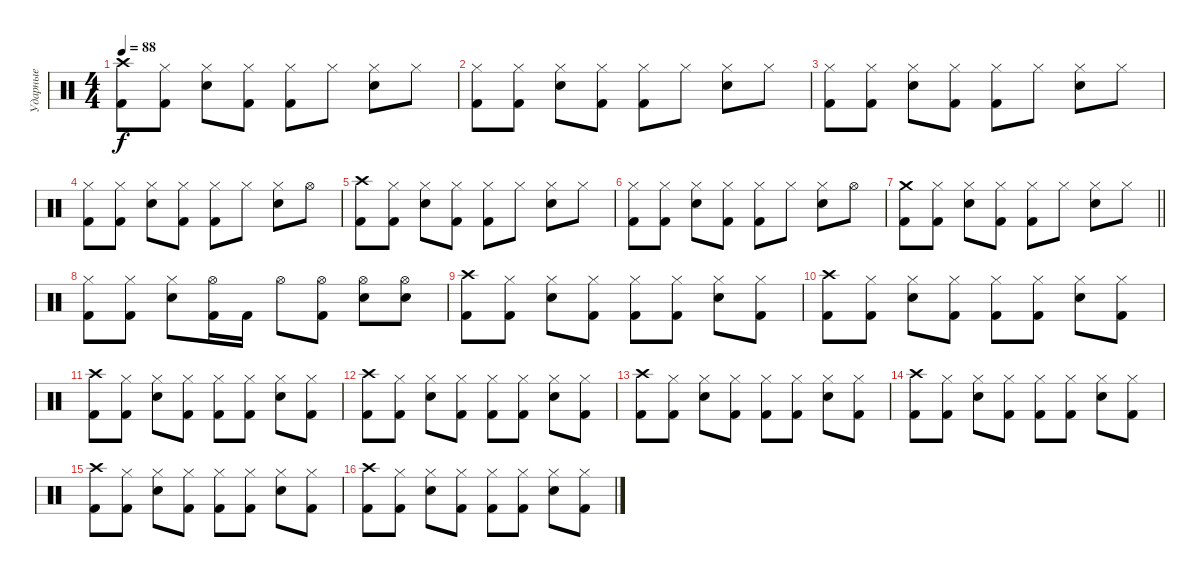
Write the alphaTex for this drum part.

\track ("Ударные" "Ударные") {instrument percussion}
\staff {score}
\articulation defaults
\ts (4 4)
\tempo 88
\clef neutral
\ks c
("Crash high (hit)" "Kick (hit) 2").8{dy f} ("Hi-Hat (closed)" "Kick (hit) 2").8 ("Hi-Hat (closed)" "Snare (hit) 2").8 ("Hi-Hat (closed)" "Kick (hit) 2").8 ("Hi-Hat (closed)" "Kick (hit) 2").8 "Hi-Hat (closed)".8 ("Hi-Hat (closed)" "Snare (hit) 2").8 "Hi-Hat (closed)".8 |
("Hi-Hat (closed)" "Kick (hit) 2").8 ("Hi-Hat (closed)" "Kick (hit) 2").8 ("Hi-Hat (closed)" "Snare (hit) 2").8 ("Hi-Hat (closed)" "Kick (hit) 2").8 ("Hi-Hat (closed)" "Kick (hit) 2").8 "Hi-Hat (closed)".8 ("Hi-Hat (closed)" "Snare (hit) 2").8 "Hi-Hat (closed)".8 |
("Hi-Hat (closed)" "Kick (hit) 2").8 ("Hi-Hat (closed)" "Kick (hit) 2").8 ("Hi-Hat (closed)" "Snare (hit) 2").8 ("Hi-Hat (closed)" "Kick (hit) 2").8 ("Hi-Hat (closed)" "Kick (hit) 2").8 "Hi-Hat (closed)".8 ("Hi-Hat (closed)" "Snare (hit) 2").8 "Hi-Hat (closed)".8 |
("Hi-Hat (closed)" "Kick (hit) 2").8 ("Hi-Hat (closed)" "Kick (hit) 2").8 ("Hi-Hat (closed)" "Snare (hit) 2").8 ("Hi-Hat (closed)" "Kick (hit) 2").8 ("Hi-Hat (closed)" "Kick (hit) 2").8 "Hi-Hat (closed)".8 ("Hi-Hat (closed)" "Snare (hit) 2").8 "Hi-Hat (open)".8 |
("Crash high (hit)" "Kick (hit) 2").8 ("Hi-Hat (closed)" "Kick (hit) 2").8 ("Hi-Hat (closed)" "Snare (hit) 2").8 ("Hi-Hat (closed)" "Kick (hit) 2").8 ("Hi-Hat (closed)" "Kick (hit) 2").8 "Hi-Hat (closed)".8 ("Hi-Hat (closed)" "Snare (hit) 2").8 "Hi-Hat (closed)".8 |
("Hi-Hat (closed)" "Kick (hit) 2").8 ("Hi-Hat (closed)" "Kick (hit) 2").8 ("Hi-Hat (closed)" "Snare (hit) 2").8 ("Hi-Hat (closed)" "Kick (hit) 2").8 ("Hi-Hat (closed)" "Kick (hit) 2").8 "Hi-Hat (closed)".8 ("Hi-Hat (closed)" "Snare (hit) 2").8 "Hi-Hat (open)".8 |
\barLineRight lightlight
("Crash medium (hit)" "Kick (hit) 2").8 ("Hi-Hat (closed)" "Kick (hit) 2").8 ("Hi-Hat (closed)" "Snare (hit) 2").8 ("Hi-Hat (closed)" "Kick (hit) 2").8 ("Hi-Hat (closed)" "Kick (hit) 2").8 "Hi-Hat (closed)".8 ("Hi-Hat (closed)" "Snare (hit) 2").8 "Hi-Hat (closed)".8 |
("Hi-Hat (closed)" "Kick (hit) 2").8 ("Hi-Hat (closed)" "Kick (hit) 2").8 ("Hi-Hat (closed)" "Snare (hit) 2").8 ("Hi-Hat (open)" "Kick (hit) 2").16 "Kick (hit) 2".16 "Hi-Hat (open)".8 ("Hi-Hat (open)" "Kick (hit) 2").8 ("Hi-Hat (open)" "Snare (hit) 2").8 ("Hi-Hat (open)" "Snare (hit) 2").8 |
("Crash high (hit)" "Kick (hit) 2").8 ("Hi-Hat (closed)" "Kick (hit) 2").8 ("Hi-Hat (closed)" "Snare (hit) 2").8 ("Hi-Hat (closed)" "Kick (hit) 2").8 ("Hi-Hat (closed)" "Kick (hit) 2").8 ("Hi-Hat (closed)" "Kick (hit) 2").8 ("Hi-Hat (closed)" "Snare (hit) 2").8 ("Hi-Hat (closed)" "Kick (hit) 2").8 |
("Crash high (hit)" "Kick (hit) 2").8 ("Hi-Hat (closed)" "Kick (hit) 2").8 ("Hi-Hat (closed)" "Snare (hit) 2").8 ("Hi-Hat (closed)" "Kick (hit) 2").8 ("Hi-Hat (closed)" "Kick (hit) 2").8 ("Hi-Hat (closed)" "Kick (hit) 2").8 ("Hi-Hat (closed)" "Snare (hit) 2").8 ("Hi-Hat (closed)" "Kick (hit) 2").8 |
("Crash high (hit)" "Kick (hit) 2").8 ("Hi-Hat (closed)" "Kick (hit) 2").8 ("Hi-Hat (closed)" "Snare (hit) 2").8 ("Hi-Hat (closed)" "Kick (hit) 2").8 ("Hi-Hat (closed)" "Kick (hit) 2").8 ("Hi-Hat (closed)" "Kick (hit) 2").8 ("Hi-Hat (closed)" "Snare (hit) 2").8 ("Hi-Hat (closed)" "Kick (hit) 2").8 |
("Crash high (hit)" "Kick (hit) 2").8 ("Hi-Hat (closed)" "Kick (hit) 2").8 ("Hi-Hat (closed)" "Snare (hit) 2").8 ("Hi-Hat (closed)" "Kick (hit) 2").8 ("Hi-Hat (closed)" "Kick (hit) 2").8 ("Hi-Hat (closed)" "Kick (hit) 2").8 ("Hi-Hat (closed)" "Snare (hit) 2").8 ("Hi-Hat (closed)" "Kick (hit) 2").8 |
("Crash high (hit)" "Kick (hit) 2").8 ("Hi-Hat (closed)" "Kick (hit) 2").8 ("Hi-Hat (closed)" "Snare (hit) 2").8 ("Hi-Hat (closed)" "Kick (hit) 2").8 ("Hi-Hat (closed)" "Kick (hit) 2").8 ("Hi-Hat (closed)" "Kick (hit) 2").8 ("Hi-Hat (closed)" "Snare (hit) 2").8 ("Hi-Hat (closed)" "Kick (hit) 2").8 |
("Crash high (hit)" "Kick (hit) 2").8 ("Hi-Hat (closed)" "Kick (hit) 2").8 ("Hi-Hat (closed)" "Snare (hit) 2").8 ("Hi-Hat (closed)" "Kick (hit) 2").8 ("Hi-Hat (closed)" "Kick (hit) 2").8 ("Hi-Hat (closed)" "Kick (hit) 2").8 ("Hi-Hat (closed)" "Snare (hit) 2").8 ("Hi-Hat (closed)" "Kick (hit) 2").8 |
("Crash high (hit)" "Kick (hit) 2").8 ("Hi-Hat (closed)" "Kick (hit) 2").8 ("Hi-Hat (closed)" "Snare (hit) 2").8 ("Hi-Hat (closed)" "Kick (hit) 2").8 ("Hi-Hat (closed)" "Kick (hit) 2").8 ("Hi-Hat (closed)" "Kick (hit) 2").8 ("Hi-Hat (closed)" "Snare (hit) 2").8 ("Hi-Hat (closed)" "Kick (hit) 2").8 |
("Crash high (hit)" "Kick (hit) 2").8 ("Hi-Hat (closed)" "Kick (hit) 2").8 ("Hi-Hat (closed)" "Snare (hit) 2").8 ("Hi-Hat (closed)" "Kick (hit) 2").8 ("Hi-Hat (closed)" "Kick (hit) 2").8 ("Hi-Hat (closed)" "Kick (hit) 2").8 ("Hi-Hat (closed)" "Snare (hit) 2").8 ("Hi-Hat (closed)" "Kick (hit) 2").8
